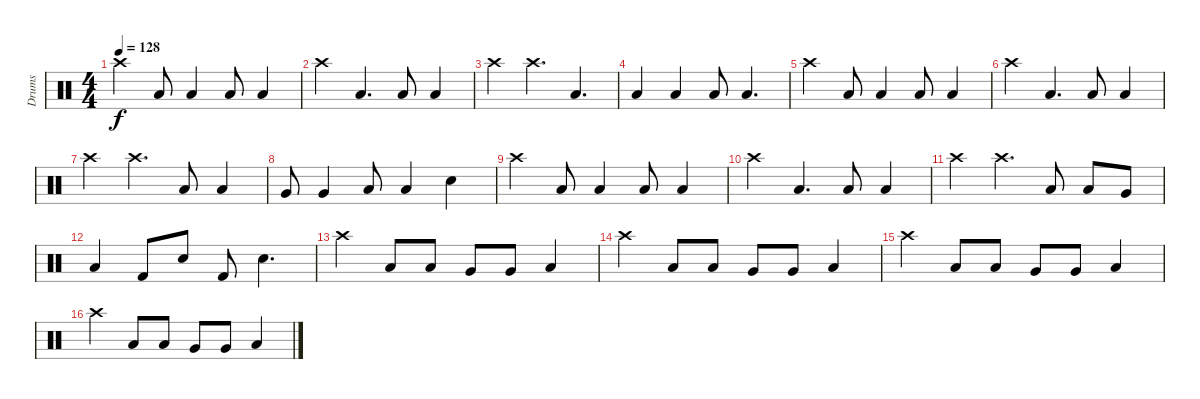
\track ("Drums" "Drums") {instrument percussion}
\staff {score}
\articulation defaults
\ts (4 4)
\tempo 128
\clef neutral
\ks c "Crash high (hit)".4{dy f} "Low Tom (hit)".8 "Low Tom (hit)".4 "Low Tom (hit)".8 "Low Tom (hit)".4
|
"Crash high (hit)".4 "Low Tom (hit)".4{d} "Low Tom (hit)".8 "Low Tom (hit)".4 |
"Crash high (hit)".4 "Crash high (hit)".4{d} "Low Tom (hit)".4{d} |
"Low Tom (hit)".4 "Low Floor Tom (hit)".4 "Low Tom (hit)".8 "Low Tom (hit)".4{d} |
"Crash high (hit)".4 "Low Tom (hit)".8 "Low Tom (hit)".4 "Low Tom (hit)".8 "Low Tom (hit)".4 |
"Crash high (hit)".4 "Low Tom (hit)".4{d} "Low Tom (hit)".8 "Low Tom (hit)".4 |
"Crash high (hit)".4 "Crash high (hit)".4{d} "Low Tom (hit)".8 "Low Tom (hit)".4 |
"Very Low Tom (hit)".8 "Very Low Tom (hit)".4 "Low Floor Tom (hit)".8 "Low Floor Tom (hit)".4 "Electric Snare (hit)".4 |
"Crash high (hit)".4 "Low Tom (hit)".8 "Low Tom (hit)".4 "Low Tom (hit)".8 "Low Tom (hit)".4 |
"Crash high (hit)".4 "Low Tom (hit)".4{d} "Low Tom (hit)".8 "Low Tom (hit)".4 |
"Crash high (hit)".4 "Crash high (hit)".4{d} "Low Tom (hit)".8 "Low Tom (hit)".8 "Very Low Tom (hit)".8 |
"Low Tom (hit)".4 "Kick (hit) 2".8 "Electric Snare (hit)".8 "Kick (hit) 2".8 "Electric Snare (hit)".4{d} |
"Crash high (hit)".4 "Low Tom (hit)".8 "Low Tom (hit)".8 "Very Low Tom (hit)".8 "Very Low Tom (hit)".8 "Low Tom (hit)".4 |
"Crash high (hit)".4 "Low Tom (hit)".8 "Low Tom (hit)".8 "Very Low Tom (hit)".8 "Very Low Tom (hit)".8 "Low Tom (hit)".4 |
"Crash high (hit)".4 "Low Tom (hit)".8 "Low Tom (hit)".8 "Very Low Tom (hit)".8 "Very Low Tom (hit)".8 "Low Tom (hit)".4 |
"Crash high (hit)".4 "Low Tom (hit)".8 "Low Tom (hit)".8 "Very Low Tom (hit)".8 "Very Low Tom (hit)".8 "Low Tom (hit)".4
